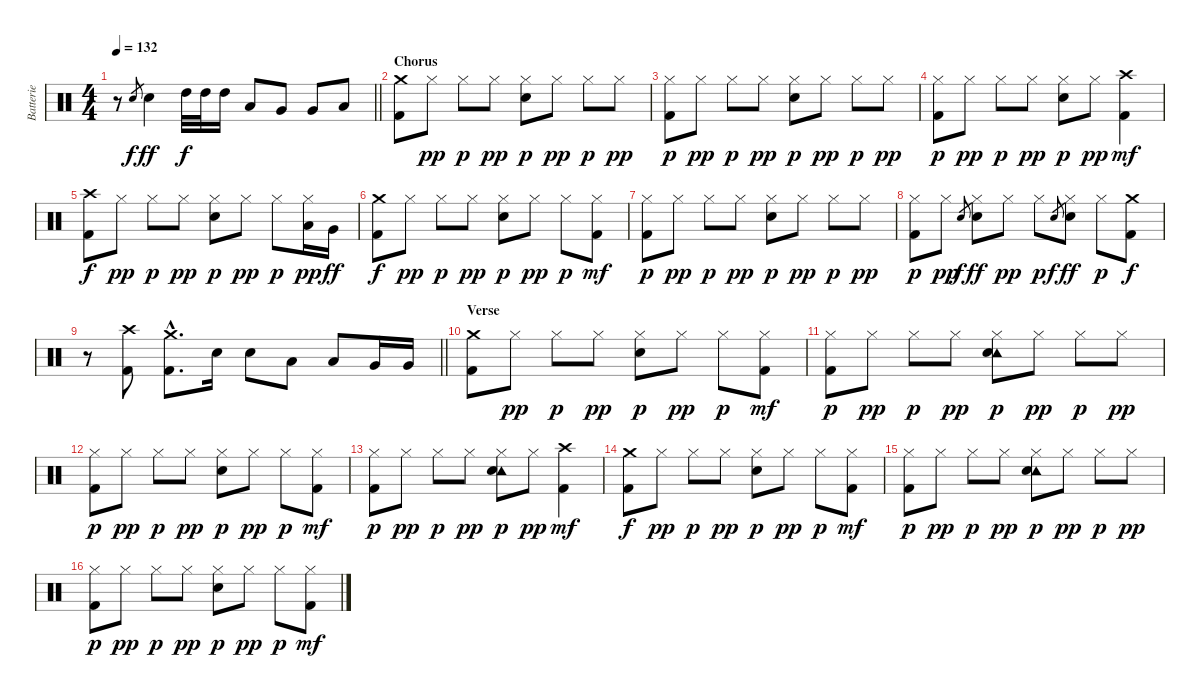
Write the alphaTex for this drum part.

\track ("Batterie" "Batterie") {instrument percussion}
\staff {score}
\articulation defaults
\ts (4 4)
\tempo 132
\clef neutral
\barLineRight lightlight
\ks c
r.8{dy pp} "Electric Snare (hit)".8{gr dy f} "Electric Snare (hit)".4{dy ff} "High Tom (hit)".32{dy f} "High Tom (hit)".32 "High Tom (hit)".16 "Low Tom (hit)".8 "Very Low Tom (hit)".8 "Very Low Tom (hit)".8 "Low Floor Tom (hit)".8 |
\section ("" "Chorus")
("Crash medium (hit)" "Kick (hit) 2").8 "Hi-Hat (closed)".8{dy pp} "Hi-Hat (closed)".8{dy p} "Hi-Hat (closed)".8{dy pp} ("Hi-Hat (closed)" "Electric Snare (hit)").8{dy p} "Hi-Hat (closed)".8{dy pp} "Hi-Hat (closed)".8{dy p} "Hi-Hat (closed)".8{dy pp} |
("Hi-Hat (closed)" "Kick (hit) 2").8{dy p} "Hi-Hat (closed)".8{dy pp} "Hi-Hat (closed)".8{dy p} "Hi-Hat (closed)".8{dy pp} ("Hi-Hat (closed)" "Electric Snare (hit)").8{dy p} "Hi-Hat (closed)".8{dy pp} "Hi-Hat (closed)".8{dy p} "Hi-Hat (closed)".8{dy pp} |
("Hi-Hat (closed)" "Kick (hit) 2").8{dy p} "Hi-Hat (closed)".8{dy pp} "Hi-Hat (closed)".8{dy p} "Hi-Hat (closed)".8{dy pp} ("Hi-Hat (closed)" "Electric Snare (hit)").8{dy p} "Hi-Hat (closed)".8{dy pp} ("Crash high (hit)" "Kick (hit) 2").4{dy mf} |
("Crash high (hit)" "Kick (hit) 2").8{dy f} "Hi-Hat (closed)".8{dy pp} "Hi-Hat (closed)".8{dy p} "Hi-Hat (closed)".8{dy pp} ("Hi-Hat (closed)" "Electric Snare (hit)").8{dy p} "Hi-Hat (closed)".8{dy pp} "Hi-Hat (closed)".8{dy p} ("Hi-Hat (closed)" "Low Tom (hit)").16{dy pp} "Very Low Tom (hit)".16{dy ff} |
("Crash medium (hit)" "Kick (hit) 2").8{dy f} "Hi-Hat (closed)".8{dy pp} "Hi-Hat (closed)".8{dy p} "Hi-Hat (closed)".8{dy pp} ("Hi-Hat (closed)" "Electric Snare (hit)").8{dy p} "Hi-Hat (closed)".8{dy pp} "Hi-Hat (closed)".8{dy p} ("Hi-Hat (closed)" "Kick (hit) 2").8{dy mf} |
("Hi-Hat (closed)" "Kick (hit) 2").8{dy p} "Hi-Hat (closed)".8{dy pp} "Hi-Hat (closed)".8{dy p} "Hi-Hat (closed)".8{dy pp} ("Hi-Hat (closed)" "Electric Snare (hit)").8{dy p} "Hi-Hat (closed)".8{dy pp} "Hi-Hat (closed)".8{dy p} "Hi-Hat (closed)".8{dy pp} |
("Hi-Hat (closed)" "Kick (hit) 2").8{dy p} "Hi-Hat (closed)".8{dy pp} "Electric Snare (hit)".8{gr dy f} ("Hi-Hat (closed)" "Electric Snare (hit)").8{dy ff} "Hi-Hat (closed)".8{dy pp} "Hi-Hat (closed)".8{dy p} "Electric Snare (hit)".8{gr dy f} ("Hi-Hat (closed)" "Electric Snare (hit)").8{dy ff} "Hi-Hat (closed)".8{dy p} ("Crash medium (hit)" "Kick (hit) 2").8{dy f} |
\barLineRight lightlight
r.8 ("Crash high (hit)" "Kick (hit) 2").8 ("Crash medium (hit)"{hac} "Kick (hit) 2"{hac}).8{d} "Electric Snare (hit)".16 "Electric Snare (hit)".8 "Low Tom (hit)".8 "Low Tom (hit)".8 "Very Low Tom (hit)".16 "Very Low Tom (hit)".16 |
\section ("" "Verse")
("Crash medium (hit)" "Kick (hit) 2").8 "Hi-Hat (closed)".8{dy pp} "Hi-Hat (closed)".8{dy p} "Hi-Hat (closed)".8{dy pp} ("Hi-Hat (closed)" "Electric Snare (hit)").8{dy p} "Hi-Hat (closed)".8{dy pp} "Hi-Hat (closed)".8{dy p} ("Hi-Hat (closed)" "Kick (hit) 2").8{dy mf} |
("Hi-Hat (closed)" "Kick (hit) 2").8{dy p} "Hi-Hat (closed)".8{dy pp} "Hi-Hat (closed)".8{dy p} "Hi-Hat (closed)".8{dy pp} ("Hi-Hat (closed)" "Tambourine (hit)" "Electric Snare (hit)").8{dy p} "Hi-Hat (closed)".8{dy pp} "Hi-Hat (closed)".8{dy p} "Hi-Hat (closed)".8{dy pp} |
("Hi-Hat (closed)" "Kick (hit) 2").8{dy p} "Hi-Hat (closed)".8{dy pp} "Hi-Hat (closed)".8{dy p} "Hi-Hat (closed)".8{dy pp} ("Hi-Hat (closed)" "Electric Snare (hit)").8{dy p} "Hi-Hat (closed)".8{dy pp} "Hi-Hat (closed)".8{dy p} ("Hi-Hat (closed)" "Kick (hit) 2").8{dy mf} |
("Hi-Hat (closed)" "Kick (hit) 2").8{dy p} "Hi-Hat (closed)".8{dy pp} "Hi-Hat (closed)".8{dy p} "Hi-Hat (closed)".8{dy pp} ("Hi-Hat (closed)" "Tambourine (hit)" "Electric Snare (hit)").8{dy p} "Hi-Hat (closed)".8{dy pp} ("Crash high (hit)" "Kick (hit) 2").4{dy mf} |
("Crash medium (hit)" "Kick (hit) 2").8{dy f} "Hi-Hat (closed)".8{dy pp} "Hi-Hat (closed)".8{dy p} "Hi-Hat (closed)".8{dy pp} ("Hi-Hat (closed)" "Electric Snare (hit)").8{dy p} "Hi-Hat (closed)".8{dy pp} "Hi-Hat (closed)".8{dy p} ("Hi-Hat (closed)" "Kick (hit) 2").8{dy mf} |
("Hi-Hat (closed)" "Kick (hit) 2").8{dy p} "Hi-Hat (closed)".8{dy pp} "Hi-Hat (closed)".8{dy p} "Hi-Hat (closed)".8{dy pp} ("Hi-Hat (closed)" "Tambourine (hit)" "Electric Snare (hit)").8{dy p} "Hi-Hat (closed)".8{dy pp} "Hi-Hat (closed)".8{dy p} "Hi-Hat (closed)".8{dy pp} |
("Hi-Hat (closed)" "Kick (hit) 2").8{dy p} "Hi-Hat (closed)".8{dy pp} "Hi-Hat (closed)".8{dy p} "Hi-Hat (closed)".8{dy pp} ("Hi-Hat (closed)" "Electric Snare (hit)").8{dy p} "Hi-Hat (closed)".8{dy pp} "Hi-Hat (closed)".8{dy p} ("Hi-Hat (closed)" "Kick (hit) 2").8{dy mf}
